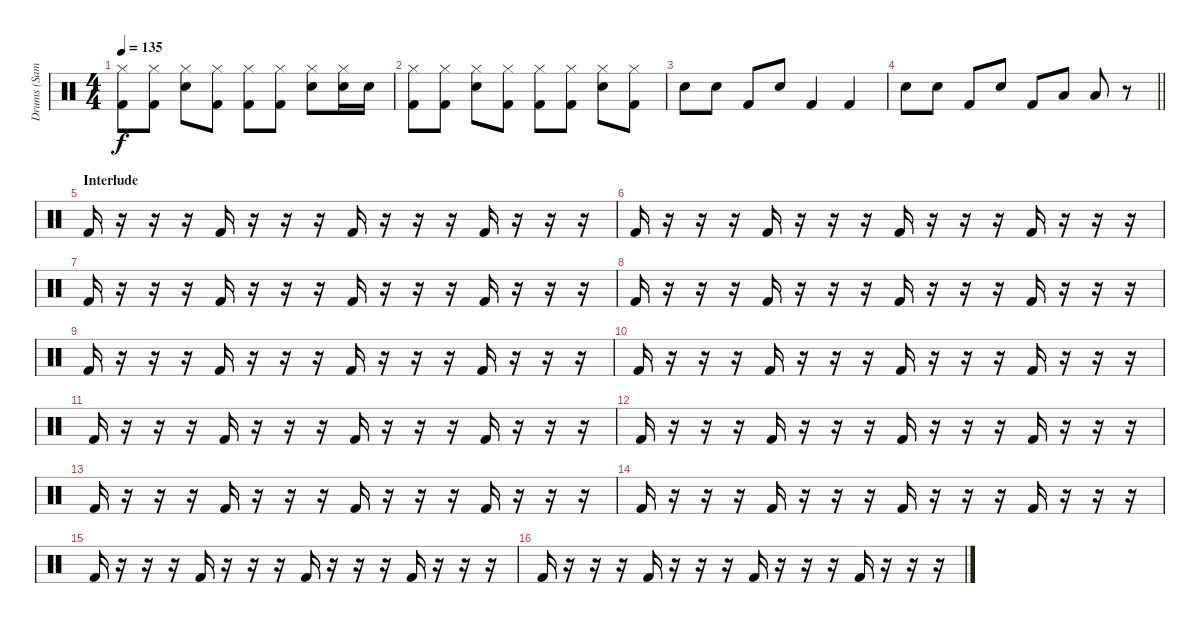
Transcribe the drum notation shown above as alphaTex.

\track ("Drums (Sam Fogarino)" "Drums (Sam") {instrument percussion}
\staff {score}
\articulation defaults
\ts (4 4)
\tempo 135
\clef neutral
\ks c
("Hi-Hat (closed)" "Kick (hit) 2").8{dy f} ("Hi-Hat (closed)" "Kick (hit) 2").8 ("Hi-Hat (closed)" "Snare (hit) 2").8 ("Hi-Hat (closed)" "Kick (hit) 2").8 ("Hi-Hat (closed)" "Kick (hit) 2").8 ("Hi-Hat (closed)" "Kick (hit) 2").8 ("Hi-Hat (closed)" "Snare (hit) 2").8 ("Hi-Hat (closed)" "Snare (hit) 2").16 "Snare (hit) 2".16 |
("Hi-Hat (closed)" "Kick (hit) 2").8 ("Hi-Hat (closed)" "Kick (hit) 2").8 ("Hi-Hat (closed)" "Snare (hit) 2").8 ("Hi-Hat (closed)" "Kick (hit) 2").8 ("Hi-Hat (closed)" "Kick (hit) 2").8 ("Hi-Hat (closed)" "Kick (hit) 2").8 ("Hi-Hat (closed)" "Snare (hit) 2").8 ("Hi-Hat (closed)" "Kick (hit) 2").8 |
"Snare (hit) 2".8 "Snare (hit) 2".8 "Kick (hit) 2".8 "Snare (hit) 2".8 "Kick (hit) 2".4 "Kick (hit) 2".4 |
\barLineRight lightlight "Snare (hit) 2".8 "Snare (hit) 2".8 "Kick (hit) 2".8 "Snare (hit) 2".8 "Kick (hit) 2".8 "Low Tom (hit)".8 "Low Tom (hit)".8
r.8 |
\section ("" "Interlude")
"Kick (hit) 2".16 r.16 r.16 r.16 "Kick (hit) 2".16 r.16 r.16 r.16 "Kick (hit) 2".16 r.16 r.16 r.16 "Kick (hit) 2".16 r.16 r.16 r.16 |
"Kick (hit) 2".16 r.16 r.16 r.16 "Kick (hit) 2".16 r.16 r.16 r.16 "Kick (hit) 2".16 r.16 r.16 r.16 "Kick (hit) 2".16 r.16 r.16 r.16 |
"Kick (hit) 2".16 r.16 r.16 r.16 "Kick (hit) 2".16 r.16 r.16 r.16 "Kick (hit) 2".16 r.16 r.16 r.16 "Kick (hit) 2".16 r.16 r.16 r.16 |
"Kick (hit) 2".16 r.16 r.16 r.16 "Kick (hit) 2".16 r.16 r.16 r.16 "Kick (hit) 2".16 r.16 r.16 r.16 "Kick (hit) 2".16 r.16 r.16 r.16 |
"Kick (hit) 2".16 r.16 r.16 r.16 "Kick (hit) 2".16 r.16 r.16 r.16 "Kick (hit) 2".16 r.16 r.16 r.16 "Kick (hit) 2".16 r.16 r.16 r.16 |
"Kick (hit) 2".16 r.16 r.16 r.16 "Kick (hit) 2".16 r.16 r.16 r.16 "Kick (hit) 2".16 r.16 r.16 r.16 "Kick (hit) 2".16 r.16 r.16 r.16 |
"Kick (hit) 2".16 r.16 r.16 r.16 "Kick (hit) 2".16 r.16 r.16 r.16 "Kick (hit) 2".16 r.16 r.16 r.16 "Kick (hit) 2".16 r.16 r.16 r.16 |
"Kick (hit) 2".16 r.16 r.16 r.16 "Kick (hit) 2".16 r.16 r.16 r.16 "Kick (hit) 2".16 r.16 r.16 r.16 "Kick (hit) 2".16 r.16 r.16 r.16 |
"Kick (hit) 2".16 r.16 r.16 r.16 "Kick (hit) 2".16 r.16 r.16 r.16 "Kick (hit) 2".16 r.16 r.16 r.16 "Kick (hit) 2".16 r.16 r.16 r.16 |
"Kick (hit) 2".16 r.16 r.16 r.16 "Kick (hit) 2".16 r.16 r.16 r.16 "Kick (hit) 2".16 r.16 r.16 r.16 "Kick (hit) 2".16 r.16 r.16 r.16 |
"Kick (hit) 2".16 r.16 r.16 r.16 "Kick (hit) 2".16 r.16 r.16 r.16 "Kick (hit) 2".16 r.16 r.16 r.16 "Kick (hit) 2".16 r.16 r.16 r.16 |
"Kick (hit) 2".16 r.16 r.16 r.16 "Kick (hit) 2".16 r.16 r.16 r.16 "Kick (hit) 2".16 r.16 r.16 r.16 "Kick (hit) 2".16 r.16 r.16 r.16
